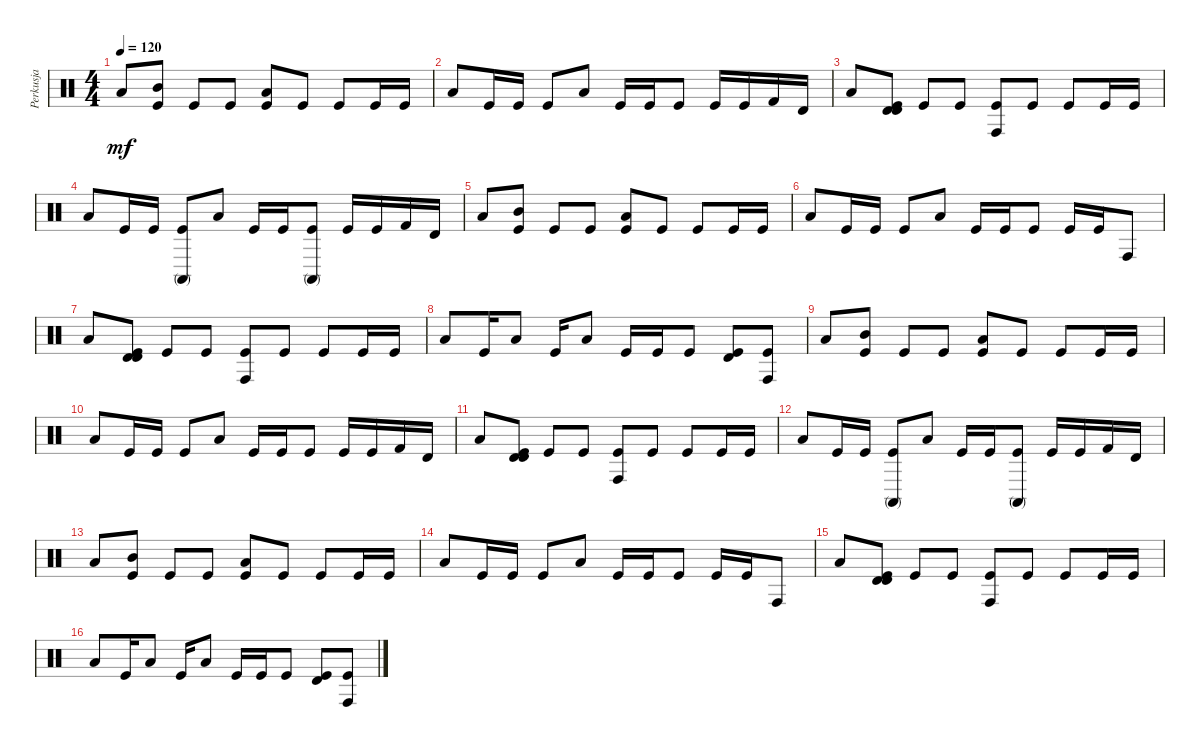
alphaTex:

\track ("Perkusja" "Perkusja") {instrument percussion}
\staff {score}
\articulation defaults
\ts (4 4)
\tempo 120
\clef neutral
\ks c "Low Tom (hit)".8{dy mf}
("Kick (hit)" "Mid Tom (hit)").8 "Kick (hit)".8 "Kick (hit)".8 ("Kick (hit)" "Low Tom (hit)").8 "Kick (hit)".8 "Kick (hit)".8 "Kick (hit)".16 "Kick (hit)".16 |
"Low Tom (hit)".8 "Kick (hit)".16 "Kick (hit)".16 "Kick (hit)".8 "Low Tom (hit)".8 "Kick (hit)".16 "Kick (hit)".16 "Kick (hit)".8 "Kick (hit)".16 "Kick (hit)".16 "Kick (hit) 2".16 "Timbale high (hit)".16 |
"Low Tom (hit)".8 ("Kick (hit)" "Timbale high (hit)" "Timbale high (hit)").8 "Kick (hit)".8 "Kick (hit)".8 ("Kick (hit)" "Conga high (hit)").8 "Kick (hit)".8 "Kick (hit)".8 "Kick (hit)".16 "Kick (hit)".16 |
"Low Tom (hit)".8 "Kick (hit)".16 "Kick (hit)".16 ("Kick (hit)" "Conga high (mute)").8 "Low Tom (hit)".8 "Kick (hit)".16 "Kick (hit)".16 ("Kick (hit)" "Conga high (mute)").8 "Kick (hit)".16 "Kick (hit)".16 "Kick (hit) 2".16 "Timbale high (hit)".16 |
"Low Tom (hit)".8 ("Kick (hit)" "Mid Tom (hit)").8 "Kick (hit)".8 "Kick (hit)".8 ("Kick (hit)" "Low Tom (hit)").8 "Kick (hit)".8 "Kick (hit)".8 "Kick (hit)".16 "Kick (hit)".16 |
"Low Tom (hit)".8 "Kick (hit)".16 "Kick (hit)".16 "Kick (hit)".8 "Low Tom (hit)".8 "Kick (hit)".16 "Kick (hit)".16 "Kick (hit)".8 "Kick (hit)".16 "Kick (hit)".16 "Conga high (hit)".8 |
"Low Tom (hit)".8 ("Kick (hit)" "Timbale high (hit)" "Timbale high (hit)").8 "Kick (hit)".8 "Kick (hit)".8 ("Kick (hit)" "Conga high (hit)").8 "Kick (hit)".8 "Kick (hit)".8 "Kick (hit)".16 "Kick (hit)".16 |
"Low Tom (hit)".8 "Kick (hit)".16 "Low Tom (hit)".8 "Kick (hit)".16 "Low Tom (hit)".8 "Kick (hit)".16 "Kick (hit)".16 "Kick (hit)".8 ("Kick (hit)" "Timbale high (hit)").8 ("Kick (hit)" "Conga high (hit)").8 |
"Low Tom (hit)".8 ("Kick (hit)" "Mid Tom (hit)").8 "Kick (hit)".8 "Kick (hit)".8 ("Kick (hit)" "Low Tom (hit)").8 "Kick (hit)".8 "Kick (hit)".8 "Kick (hit)".16 "Kick (hit)".16 |
"Low Tom (hit)".8 "Kick (hit)".16 "Kick (hit)".16 "Kick (hit)".8 "Low Tom (hit)".8 "Kick (hit)".16 "Kick (hit)".16 "Kick (hit)".8 "Kick (hit)".16 "Kick (hit)".16 "Kick (hit) 2".16 "Timbale high (hit)".16 |
"Low Tom (hit)".8 ("Kick (hit)" "Timbale high (hit)" "Timbale high (hit)").8 "Kick (hit)".8 "Kick (hit)".8 ("Kick (hit)" "Conga high (hit)").8 "Kick (hit)".8 "Kick (hit)".8 "Kick (hit)".16 "Kick (hit)".16 |
"Low Tom (hit)".8 "Kick (hit)".16 "Kick (hit)".16 ("Kick (hit)" "Conga high (mute)").8 "Low Tom (hit)".8 "Kick (hit)".16 "Kick (hit)".16 ("Kick (hit)" "Conga high (mute)").8 "Kick (hit)".16 "Kick (hit)".16 "Kick (hit) 2".16 "Timbale high (hit)".16 |
"Low Tom (hit)".8 ("Kick (hit)" "Mid Tom (hit)").8 "Kick (hit)".8 "Kick (hit)".8 ("Kick (hit)" "Low Tom (hit)").8 "Kick (hit)".8 "Kick (hit)".8 "Kick (hit)".16 "Kick (hit)".16 |
"Low Tom (hit)".8 "Kick (hit)".16 "Kick (hit)".16 "Kick (hit)".8 "Low Tom (hit)".8 "Kick (hit)".16 "Kick (hit)".16 "Kick (hit)".8 "Kick (hit)".16 "Kick (hit)".16 "Conga high (hit)".8 |
"Low Tom (hit)".8 ("Kick (hit)" "Timbale high (hit)" "Timbale high (hit)").8 "Kick (hit)".8 "Kick (hit)".8 ("Kick (hit)" "Conga high (hit)").8 "Kick (hit)".8 "Kick (hit)".8 "Kick (hit)".16 "Kick (hit)".16 |
"Low Tom (hit)".8 "Kick (hit)".16 "Low Tom (hit)".8 "Kick (hit)".16 "Low Tom (hit)".8 "Kick (hit)".16 "Kick (hit)".16 "Kick (hit)".8 ("Kick (hit)" "Timbale high (hit)").8 ("Kick (hit)" "Conga high (hit)").8
